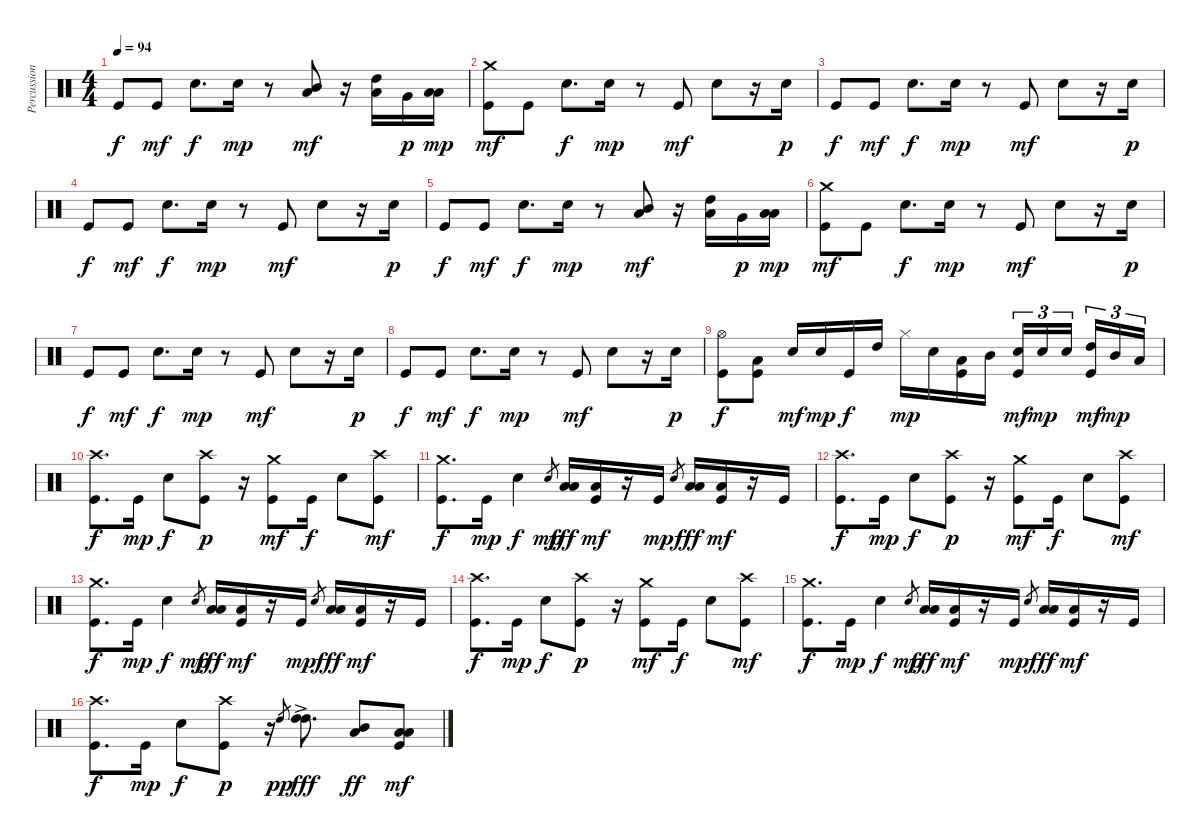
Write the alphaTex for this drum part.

\track ("Percussions" "Percussion") {instrument percussion}
\staff {score}
\articulation defaults
\ts (4 4)
\tempo 94
\clef neutral
\ks c "Kick (hit)".8{dy f} "Kick (hit)".8{dy mf} "Snare (hit) 2".8{d dy f} "Snare (hit) 2".16{dy mp}
r.8 ("Low Tom (hit)" "Mid Tom (hit)").8{dy mf} r.16 ("Low Tom (hit)" "High Tom (hit)").16 "Very Low Tom (hit)".16{dy p} ("Low Tom (hit)" "Low Floor Tom (hit)").16{dy mp} |
("Crash medium (hit)" "Kick (hit)").8{dy mf} "Kick (hit)".8 "Snare (hit) 2".8{d dy f} "Snare (hit) 2".16{dy mp} r.8 "Kick (hit)".8{dy mf} "Snare (hit) 2".8 r.16 "Snare (hit) 2".16{dy p} |
"Kick (hit)".8{dy f} "Kick (hit)".8{dy mf} "Snare (hit) 2".8{d dy f} "Snare (hit) 2".16{dy mp} r.8 "Kick (hit)".8{dy mf} "Snare (hit) 2".8 r.16 "Snare (hit) 2".16{dy p} |
"Kick (hit)".8{dy f} "Kick (hit)".8{dy mf} "Snare (hit) 2".8{d dy f} "Snare (hit) 2".16{dy mp} r.8 "Kick (hit)".8{dy mf} "Snare (hit) 2".8 r.16 "Snare (hit) 2".16{dy p} |
"Kick (hit)".8{dy f} "Kick (hit)".8{dy mf} "Snare (hit) 2".8{d dy f} "Snare (hit) 2".16{dy mp} r.8 ("Low Tom (hit)" "Mid Tom (hit)").8{dy mf} r.16 ("Low Tom (hit)" "High Tom (hit)").16 "Very Low Tom (hit)".16{dy p} ("Low Tom (hit)" "Low Floor Tom (hit)").16{dy mp} |
("Crash medium (hit)" "Kick (hit)").8{dy mf} "Kick (hit)".8 "Snare (hit) 2".8{d dy f} "Snare (hit) 2".16{dy mp} r.8 "Kick (hit)".8{dy mf} "Snare (hit) 2".8 r.16 "Snare (hit) 2".16{dy p} |
"Kick (hit)".8{dy f} "Kick (hit)".8{dy mf} "Snare (hit) 2".8{d dy f} "Snare (hit) 2".16{dy mp} r.8 "Kick (hit)".8{dy mf} "Snare (hit) 2".8 r.16 "Snare (hit) 2".16{dy p} |
"Kick (hit)".8{dy f} "Kick (hit)".8{dy mf} "Snare (hit) 2".8{d dy f} "Snare (hit) 2".16{dy mp} r.8 "Kick (hit)".8{dy mf} "Snare (hit) 2".8 r.16 "Snare (hit) 2".16{dy p} |
("Hi-Hat (open)" "Kick (hit)").8{dy f} ("Low Tom (hit)" "Kick (hit)").8 "Snare (hit) 2".16{dy mf} "Snare (hit) 2".16{dy mp} "Kick (hit)".16{dy f} "High Tom (hit)".16 "Hi-Hat (closed)".16{dy mp} "Snare (hit) 2".16 ("Low Tom (hit)" "Kick (hit)").16 "Mid Tom (hit)".16 ("Snare (hit) 2" "Kick (hit)").16{tu (3 2) dy mf} "Snare (hit) 2".16{tu (3 2) dy mp} "Snare (hit) 2".16{tu (3 2) beam splitsecondary} ("High Tom (hit)" "Kick (hit)").16{tu (3 2) dy mf} "Mid Tom (hit)".16{tu (3 2) dy mp} "Low Tom (hit)".16{tu (3 2)} |
("Crash high (hit)" "Kick (hit)").8{d dy f} "Kick (hit)".16{dy mp} "Snare (hit) 2".8{dy f} ("Crash high (hit)" "Kick (hit)").8{dy p} r.16 ("Crash medium (hit)" "Kick (hit)").8{dy mf} "Kick (hit)".16{dy f} "Snare (hit) 2".8 ("Crash high (hit)" "Kick (hit)").8{dy mf} |
("Crash medium (hit)" "Kick (hit)").8{d dy f} "Kick (hit)".16{dy mp} "Snare (hit) 2".4{dy f} "Snare (hit) 2".8{gr dy mp} ("Low Tom (hit)" "Low Floor Tom (hit)").16{dy fff} ("Low Floor Tom (hit)" "Kick (hit)").16{dy mf} r.16 "Kick (hit)".16{dy mp} "Snare (hit) 2".8{gr} ("Low Tom (hit)" "Low Floor Tom (hit)").16{dy fff} ("Low Floor Tom (hit)" "Kick (hit)").16{dy mf} r.16 "Kick (hit)".16 |
("Crash high (hit)" "Kick (hit)").8{d dy f} "Kick (hit)".16{dy mp} "Snare (hit) 2".8{dy f} ("Crash high (hit)" "Kick (hit)").8{dy p} r.16 ("Crash medium (hit)" "Kick (hit)").8{dy mf} "Kick (hit)".16{dy f} "Snare (hit) 2".8 ("Crash high (hit)" "Kick (hit)").8{dy mf} |
("Crash medium (hit)" "Kick (hit)").8{d dy f} "Kick (hit)".16{dy mp} "Snare (hit) 2".4{dy f} "Snare (hit) 2".8{gr dy mp} ("Low Tom (hit)" "Low Floor Tom (hit)").16{dy fff} ("Low Floor Tom (hit)" "Kick (hit)").16{dy mf} r.16 "Kick (hit)".16{dy mp} "Snare (hit) 2".8{gr} ("Low Tom (hit)" "Low Floor Tom (hit)").16{dy fff} ("Low Floor Tom (hit)" "Kick (hit)").16{dy mf} r.16 "Kick (hit)".16 |
("Crash high (hit)" "Kick (hit)").8{d dy f} "Kick (hit)".16{dy mp} "Snare (hit) 2".8{dy f} ("Crash high (hit)" "Kick (hit)").8{dy p} r.16 ("Crash medium (hit)" "Kick (hit)").8{dy mf} "Kick (hit)".16{dy f} "Snare (hit) 2".8 ("Crash high (hit)" "Kick (hit)").8{dy mf} |
("Crash medium (hit)" "Kick (hit)").8{d dy f} "Kick (hit)".16{dy mp} "Snare (hit) 2".4{dy f} "Snare (hit) 2".8{gr dy mp} ("Low Tom (hit)" "Low Floor Tom (hit)").16{dy fff} ("Low Floor Tom (hit)" "Kick (hit)").16{dy mf} r.16 "Kick (hit)".16{dy mp} "Snare (hit) 2".8{gr} ("Low Tom (hit)" "Low Floor Tom (hit)").16{dy fff} ("Low Floor Tom (hit)" "Kick (hit)").16{dy mf} r.16 "Kick (hit)".16 |
("Crash high (hit)" "Kick (hit)").8{d dy f} "Kick (hit)".16{dy mp} "Snare (hit) 2".8{dy f} ("Crash high (hit)" "Kick (hit)").8{dy p} r.16 "High Tom (hit)".8{gr dy pp} ("High Tom (hit)" "High Tom (hit)"{ac}).8{d dy fff} ("Mid Tom (hit)" "Low Tom (hit)").8{dy ff} ("Low Tom (hit)" "Low Floor Tom (hit)" "Kick (hit)").8{dy mf}
